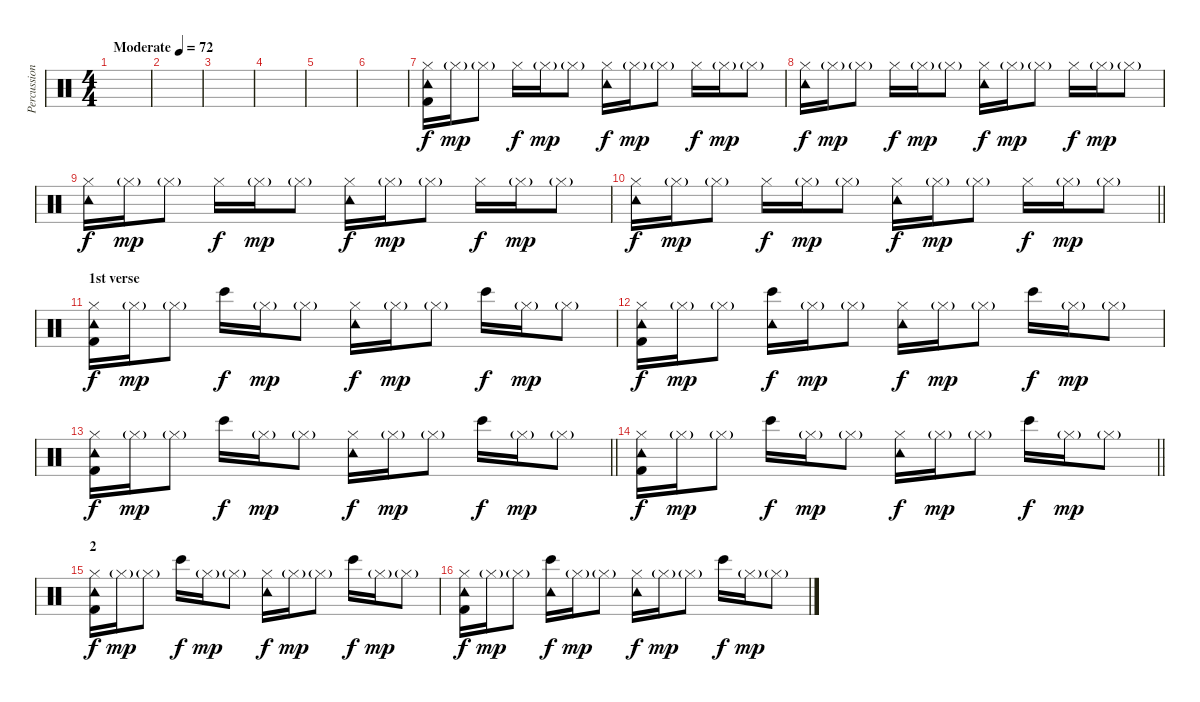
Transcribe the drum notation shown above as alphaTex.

\track ("Percussion" "Percussion") {instrument percussion bank 126}
\staff {score}
\articulation defaults
\ts (4 4)
\tempo (72 "Moderate")
\clef neutral
\ks c
|
|
|
|
|
|
("Tambourine (hit)" "Kick (hit) 2" "Hi-Hat (closed)").16 "Hi-Hat (closed)"{g}.16{dy mp} "Hi-Hat (closed)"{g}.8 "Hi-Hat (closed)".16{dy f} "Hi-Hat (closed)"{g}.16{dy mp} "Hi-Hat (closed)"{g}.8 ("Tambourine (hit)" "Hi-Hat (closed)").16{dy f} "Hi-Hat (closed)"{g}.16{dy mp} "Hi-Hat (closed)"{g}.8 "Hi-Hat (closed)".16{dy f} "Hi-Hat (closed)"{g}.16{dy mp} "Hi-Hat (closed)"{g}.8 |
("Tambourine (hit)" "Hi-Hat (closed)").16{dy f} "Hi-Hat (closed)"{g}.16{dy mp} "Hi-Hat (closed)"{g}.8 "Hi-Hat (closed)".16{dy f} "Hi-Hat (closed)"{g}.16{dy mp} "Hi-Hat (closed)"{g}.8 ("Tambourine (hit)" "Hi-Hat (closed)").16{dy f} "Hi-Hat (closed)"{g}.16{dy mp} "Hi-Hat (closed)"{g}.8 "Hi-Hat (closed)".16{dy f} "Hi-Hat (closed)"{g}.16{dy mp} "Hi-Hat (closed)"{g}.8 |
("Tambourine (hit)" "Hi-Hat (closed)").16{dy f} "Hi-Hat (closed)"{g}.16{dy mp} "Hi-Hat (closed)"{g}.8 "Hi-Hat (closed)".16{dy f} "Hi-Hat (closed)"{g}.16{dy mp} "Hi-Hat (closed)"{g}.8 ("Tambourine (hit)" "Hi-Hat (closed)").16{dy f} "Hi-Hat (closed)"{g}.16{dy mp} "Hi-Hat (closed)"{g}.8 "Hi-Hat (closed)".16{dy f} "Hi-Hat (closed)"{g}.16{dy mp} "Hi-Hat (closed)"{g}.8 |
\barLineRight lightlight
("Tambourine (hit)" "Hi-Hat (closed)").16{dy f} "Hi-Hat (closed)"{g}.16{dy mp} "Hi-Hat (closed)"{g}.8 "Hi-Hat (closed)".16{dy f} "Hi-Hat (closed)"{g}.16{dy mp} "Hi-Hat (closed)"{g}.8 ("Tambourine (hit)" "Hi-Hat (closed)").16{dy f} "Hi-Hat (closed)"{g}.16{dy mp} "Hi-Hat (closed)"{g}.8 "Hi-Hat (closed)".16{dy f} "Hi-Hat (closed)"{g}.16{dy mp} "Hi-Hat (closed)"{g}.8 |
\section ("" "1st verse")
("Tambourine (hit)" "Kick (hit) 2" "Hi-Hat (closed)").16{dy f} "Hi-Hat (closed)"{g}.16{dy mp} "Hi-Hat (closed)"{g}.8 "Bongo High (hit)".16{dy f} "Hi-Hat (closed)"{g}.16{dy mp} "Hi-Hat (closed)"{g}.8 ("Tambourine (hit)" "Hi-Hat (closed)").16{dy f} "Hi-Hat (closed)"{g}.16{dy mp} "Hi-Hat (closed)"{g}.8 "Bongo High (hit)".16{dy f} "Hi-Hat (closed)"{g}.16{dy mp} "Hi-Hat (closed)"{g}.8 |
("Tambourine (hit)" "Kick (hit) 2" "Hi-Hat (closed)").16{dy f} "Hi-Hat (closed)"{g}.16{dy mp} "Hi-Hat (closed)"{g}.8 ("Bongo High (hit)" "Tambourine (hit)").16{dy f} "Hi-Hat (closed)"{g}.16{dy mp} "Hi-Hat (closed)"{g}.8 ("Tambourine (hit)" "Hi-Hat (closed)").16{dy f} "Hi-Hat (closed)"{g}.16{dy mp} "Hi-Hat (closed)"{g}.8 "Bongo High (hit)".16{dy f} "Hi-Hat (closed)"{g}.16{dy mp} "Hi-Hat (closed)"{g}.8 |
\barLineRight lightlight
("Tambourine (hit)" "Kick (hit) 2" "Hi-Hat (closed)").16{dy f} "Hi-Hat (closed)"{g}.16{dy mp} "Hi-Hat (closed)"{g}.8 "Bongo High (hit)".16{dy f} "Hi-Hat (closed)"{g}.16{dy mp} "Hi-Hat (closed)"{g}.8 ("Tambourine (hit)" "Hi-Hat (closed)").16{dy f} "Hi-Hat (closed)"{g}.16{dy mp} "Hi-Hat (closed)"{g}.8 "Bongo High (hit)".16{dy f} "Hi-Hat (closed)"{g}.16{dy mp} "Hi-Hat (closed)"{g}.8 |
\section ("" "")
\barLineRight lightlight
("Tambourine (hit)" "Kick (hit) 2" "Hi-Hat (closed)").16{dy f} "Hi-Hat (closed)"{g}.16{dy mp} "Hi-Hat (closed)"{g}.8 "Bongo High (hit)".16{dy f} "Hi-Hat (closed)"{g}.16{dy mp} "Hi-Hat (closed)"{g}.8 ("Tambourine (hit)" "Hi-Hat (closed)").16{dy f} "Hi-Hat (closed)"{g}.16{dy mp} "Hi-Hat (closed)"{g}.8 "Bongo High (hit)".16{dy f} "Hi-Hat (closed)"{g}.16{dy mp} "Hi-Hat (closed)"{g}.8 |
\section ("" "2")
("Tambourine (hit)" "Kick (hit) 2" "Hi-Hat (closed)").16{dy f} "Hi-Hat (closed)"{g}.16{dy mp} "Hi-Hat (closed)"{g}.8 "Bongo High (hit)".16{dy f} "Hi-Hat (closed)"{g}.16{dy mp} "Hi-Hat (closed)"{g}.8 ("Tambourine (hit)" "Hi-Hat (closed)").16{dy f} "Hi-Hat (closed)"{g}.16{dy mp} "Hi-Hat (closed)"{g}.8 "Bongo High (hit)".16{dy f} "Hi-Hat (closed)"{g}.16{dy mp} "Hi-Hat (closed)"{g}.8 |
("Tambourine (hit)" "Kick (hit) 2" "Hi-Hat (closed)").16{dy f} "Hi-Hat (closed)"{g}.16{dy mp} "Hi-Hat (closed)"{g}.8 ("Bongo High (hit)" "Tambourine (hit)").16{dy f} "Hi-Hat (closed)"{g}.16{dy mp} "Hi-Hat (closed)"{g}.8 ("Tambourine (hit)" "Hi-Hat (closed)").16{dy f} "Hi-Hat (closed)"{g}.16{dy mp} "Hi-Hat (closed)"{g}.8 "Bongo High (hit)".16{dy f} "Hi-Hat (closed)"{g}.16{dy mp} "Hi-Hat (closed)"{g}.8
